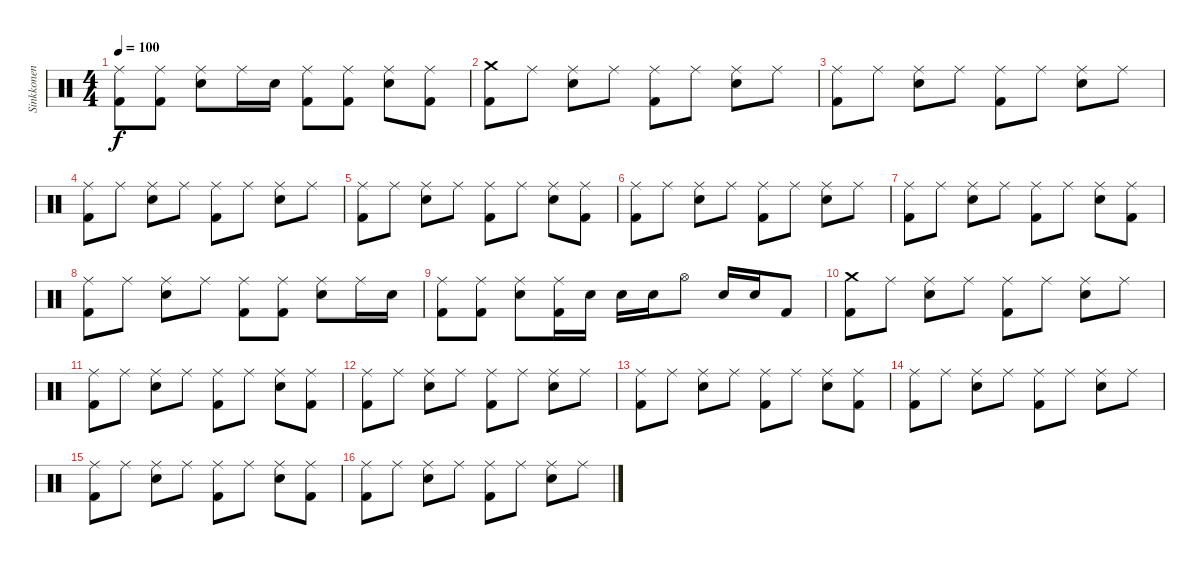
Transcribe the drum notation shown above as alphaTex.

\track ("Sinkkonen" "Sinkkonen") {instrument percussion}
\staff {score}
\articulation defaults
\ts (4 4)
\tempo 100
\clef neutral
\ks c
("Kick (hit) 2" "Ride (middle)").8{dy f} ("Kick (hit) 2" "Ride (middle)").8 ("Ride (middle)" "Electric Snare (hit)").8 "Ride (middle)".16 "Electric Snare (hit)".16 ("Kick (hit) 2" "Ride (middle)").8 ("Kick (hit) 2" "Ride (middle)").8 ("Ride (middle)" "Electric Snare (hit)").8 ("Kick (hit) 2" "Ride (middle)").8 |
("Kick (hit) 2" "Crash medium (hit)").8 "Ride (middle)".8 ("Ride (middle)" "Electric Snare (hit)").8 "Ride (middle)".8 ("Kick (hit) 2" "Ride (middle)").8 "Ride (middle)".8 ("Ride (middle)" "Electric Snare (hit)").8 "Ride (middle)".8 |
("Kick (hit) 2" "Ride (middle)").8 "Ride (middle)".8 ("Ride (middle)" "Electric Snare (hit)").8 "Ride (middle)".8 ("Kick (hit) 2" "Ride (middle)").8 "Ride (middle)".8 ("Ride (middle)" "Electric Snare (hit)").8 "Ride (middle)".8 |
("Kick (hit) 2" "Ride (middle)").8 "Ride (middle)".8 ("Ride (middle)" "Electric Snare (hit)").8 "Ride (middle)".8 ("Kick (hit) 2" "Ride (middle)").8 "Ride (middle)".8 ("Ride (middle)" "Electric Snare (hit)").8 "Ride (middle)".8 |
("Kick (hit) 2" "Ride (middle)").8 "Ride (middle)".8 ("Ride (middle)" "Electric Snare (hit)").8 "Ride (middle)".8 ("Kick (hit) 2" "Ride (middle)").8 "Ride (middle)".8 ("Ride (middle)" "Electric Snare (hit)").8 ("Kick (hit) 2" "Ride (middle)").8 |
("Kick (hit) 2" "Ride (middle)").8 "Ride (middle)".8 ("Ride (middle)" "Electric Snare (hit)").8 "Ride (middle)".8 ("Kick (hit) 2" "Ride (middle)").8 "Ride (middle)".8 ("Ride (middle)" "Electric Snare (hit)").8 "Ride (middle)".8 |
("Kick (hit) 2" "Ride (middle)").8 "Ride (middle)".8 ("Ride (middle)" "Electric Snare (hit)").8 "Ride (middle)".8 ("Kick (hit) 2" "Ride (middle)").8 "Ride (middle)".8 ("Ride (middle)" "Electric Snare (hit)").8 ("Kick (hit) 2" "Ride (middle)").8 |
("Kick (hit) 2" "Ride (middle)").8 "Ride (middle)".8 ("Ride (middle)" "Electric Snare (hit)").8 "Ride (middle)".8 ("Kick (hit) 2" "Ride (middle)").8 ("Kick (hit) 2" "Ride (middle)").8 ("Ride (middle)" "Electric Snare (hit)").8 "Ride (middle)".16 "Electric Snare (hit)".16 |
("Kick (hit) 2" "Ride (middle)").8 ("Kick (hit) 2" "Ride (middle)").8 ("Ride (middle)" "Electric Snare (hit)").8 ("Kick (hit) 2" "Ride (middle)").16 "Electric Snare (hit)".16 "Electric Snare (hit)".16 "Electric Snare (hit)".16 "Hi-Hat (open)".8 "Electric Snare (hit)".16 "Electric Snare (hit)".16 "Kick (hit) 2".8 |
("Kick (hit) 2" "Crash medium (hit)").8 "Ride (middle)".8 ("Ride (middle)" "Electric Snare (hit)").8 "Ride (middle)".8 ("Kick (hit) 2" "Ride (middle)").8 "Ride (middle)".8 ("Ride (middle)" "Electric Snare (hit)").8 "Ride (middle)".8 |
("Kick (hit) 2" "Ride (middle)").8 "Ride (middle)".8 ("Ride (middle)" "Electric Snare (hit)").8 "Ride (middle)".8 ("Kick (hit) 2" "Ride (middle)").8 "Ride (middle)".8 ("Ride (middle)" "Electric Snare (hit)").8 ("Kick (hit) 2" "Ride (middle)").8 |
("Kick (hit) 2" "Ride (middle)").8 "Ride (middle)".8 ("Ride (middle)" "Electric Snare (hit)").8 "Ride (middle)".8 ("Kick (hit) 2" "Ride (middle)").8 "Ride (middle)".8 ("Ride (middle)" "Electric Snare (hit)").8 "Ride (middle)".8 |
("Kick (hit) 2" "Ride (middle)").8 "Ride (middle)".8 ("Ride (middle)" "Electric Snare (hit)").8 "Ride (middle)".8 ("Kick (hit) 2" "Ride (middle)").8 "Ride (middle)".8 ("Ride (middle)" "Electric Snare (hit)").8 ("Kick (hit) 2" "Ride (middle)").8 |
("Kick (hit) 2" "Ride (middle)").8 "Ride (middle)".8 ("Ride (middle)" "Electric Snare (hit)").8 "Ride (middle)".8 ("Kick (hit) 2" "Ride (middle)").8 "Ride (middle)".8 ("Ride (middle)" "Electric Snare (hit)").8 "Ride (middle)".8 |
("Kick (hit) 2" "Ride (middle)").8 "Ride (middle)".8 ("Ride (middle)" "Electric Snare (hit)").8 "Ride (middle)".8 ("Kick (hit) 2" "Ride (middle)").8 "Ride (middle)".8 ("Ride (middle)" "Electric Snare (hit)").8 ("Kick (hit) 2" "Ride (middle)").8 |
("Kick (hit) 2" "Ride (middle)").8 "Ride (middle)".8 ("Ride (middle)" "Electric Snare (hit)").8 "Ride (middle)".8 ("Kick (hit) 2" "Ride (middle)").8 "Ride (middle)".8 ("Ride (middle)" "Electric Snare (hit)").8 "Ride (middle)".8
